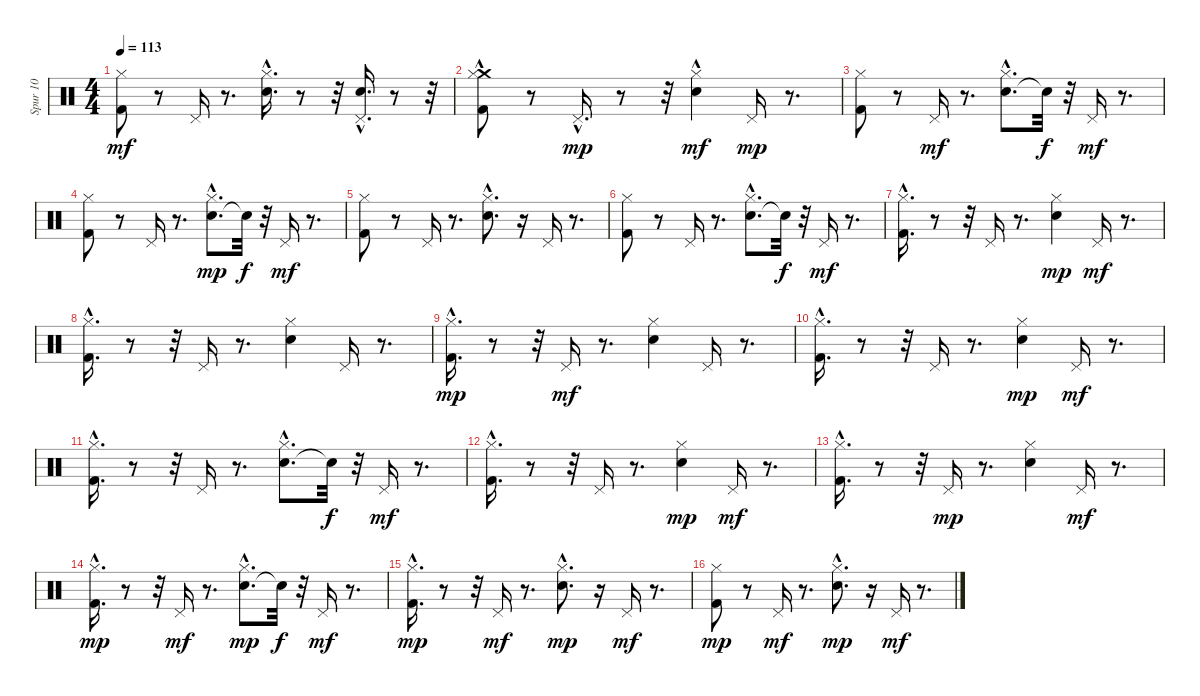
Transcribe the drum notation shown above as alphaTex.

\track ("Spur 10" "Spur 10") {instrument percussion}
\staff {score}
\articulation defaults
\ts (4 4)
\tempo 113
\clef neutral
\ks c
("Kick (hit) 2" "Hi-Hat (closed)").8{dy mf} r.8 "Pedal Hi-Hat (hit)".16 r.8{d} ("Snare (hit) 2"{hac} "Hi-Hat (closed)").16{d} r.8 r.32 ("Snare (hit) 2"{hac} "Pedal Hi-Hat (hit)").16{d} r.8 r.32 |
("Kick (hit) 2" "Crash medium (hit)"{hac} "Hi-Hat (closed)"{hac}).8 r.8 "Pedal Hi-Hat (hit)"{hac}.16{d dy mp} r.8 r.32 ("Snare (hit) 2" "Hi-Hat (closed)"{hac}).4{dy mf} "Pedal Hi-Hat (hit)".16{dy mp} r.8{d} |
("Kick (hit) 2" "Hi-Hat (closed)").8 r.8 "Pedal Hi-Hat (hit)".16{dy mf} r.8{d} ("Snare (hit) 2"{hac} "Hi-Hat (closed)").8{d} "Snare (hit)"{t}.32{dy f} r.32 "Pedal Hi-Hat (hit)".16{dy mf} r.8{d} |
("Kick (hit) 2" "Hi-Hat (closed)").8 r.8 "Pedal Hi-Hat (hit)".16 r.8{d} ("Snare (hit) 2"{hac} "Hi-Hat (closed)").8{d dy mp} "Snare (hit)"{t}.32{dy f} r.32 "Pedal Hi-Hat (hit)".16{dy mf} r.8{d} |
("Kick (hit) 2" "Hi-Hat (closed)").8 r.8 "Pedal Hi-Hat (hit)".16 r.8{d} ("Snare (hit) 2"{hac} "Hi-Hat (closed)").8{d} r.16 "Pedal Hi-Hat (hit)".16 r.8{d} |
("Kick (hit) 2" "Hi-Hat (closed)").8 r.8 "Pedal Hi-Hat (hit)".16 r.8{d} ("Snare (hit) 2"{hac} "Hi-Hat (closed)").8{d} "Snare (hit)"{t}.32{dy f} r.32 "Pedal Hi-Hat (hit)".16{dy mf} r.8{d} |
("Kick (hit) 2"{hac} "Hi-Hat (closed)").16{d} r.8 r.32 "Pedal Hi-Hat (hit)".16 r.8{d} ("Snare (hit) 2" "Hi-Hat (closed)").4{dy mp} "Pedal Hi-Hat (hit)".16{dy mf} r.8{d} |
("Kick (hit) 2"{hac} "Hi-Hat (closed)").16{d} r.8 r.32 "Pedal Hi-Hat (hit)".16 r.8{d} ("Snare (hit) 2" "Hi-Hat (closed)").4 "Pedal Hi-Hat (hit)".16 r.8{d} |
("Kick (hit) 2"{hac} "Hi-Hat (closed)").16{d dy mp} r.8 r.32 "Pedal Hi-Hat (hit)".16{dy mf} r.8{d} ("Snare (hit) 2" "Hi-Hat (closed)").4 "Pedal Hi-Hat (hit)".16 r.8{d} |
("Kick (hit) 2"{hac} "Hi-Hat (closed)").16{d} r.8 r.32 "Pedal Hi-Hat (hit)".16 r.8{d} ("Snare (hit) 2" "Hi-Hat (closed)").4{dy mp} "Pedal Hi-Hat (hit)".16{dy mf} r.8{d} |
("Kick (hit) 2"{hac} "Hi-Hat (closed)").16{d} r.8 r.32 "Pedal Hi-Hat (hit)".16 r.8{d} ("Snare (hit) 2"{hac} "Hi-Hat (closed)").8{d} "Snare (hit)"{t}.32{dy f} r.32 "Pedal Hi-Hat (hit)".16{dy mf} r.8{d} |
("Kick (hit) 2"{hac} "Hi-Hat (closed)").16{d} r.8 r.32 "Pedal Hi-Hat (hit)".16 r.8{d} ("Snare (hit) 2" "Hi-Hat (closed)").4{dy mp} "Pedal Hi-Hat (hit)".16{dy mf} r.8{d} |
("Kick (hit) 2"{hac} "Hi-Hat (closed)").16{d} r.8 r.32 "Pedal Hi-Hat (hit)".16{dy mp} r.8{d} ("Snare (hit) 2" "Hi-Hat (closed)").4 "Pedal Hi-Hat (hit)".16{dy mf} r.8{d} |
("Kick (hit) 2"{hac} "Hi-Hat (closed)").16{d dy mp} r.8 r.32 "Pedal Hi-Hat (hit)".16{dy mf} r.8{d} ("Snare (hit) 2"{hac} "Hi-Hat (closed)").8{d dy mp} "Snare (hit)"{t}.32{dy f} r.32 "Pedal Hi-Hat (hit)".16{dy mf} r.8{d} |
("Kick (hit) 2"{hac} "Hi-Hat (closed)").16{d dy mp} r.8 r.32 "Pedal Hi-Hat (hit)".16{dy mf} r.8{d} ("Snare (hit) 2"{hac} "Hi-Hat (closed)").8{d dy mp} r.16 "Pedal Hi-Hat (hit)".16{dy mf} r.8{d} |
("Kick (hit) 2" "Hi-Hat (closed)").8{dy mp} r.8 "Pedal Hi-Hat (hit)".16{dy mf} r.8{d} ("Snare (hit) 2"{hac} "Hi-Hat (closed)").8{d dy mp} r.16 "Pedal Hi-Hat (hit)".16{dy mf} r.8{d}
